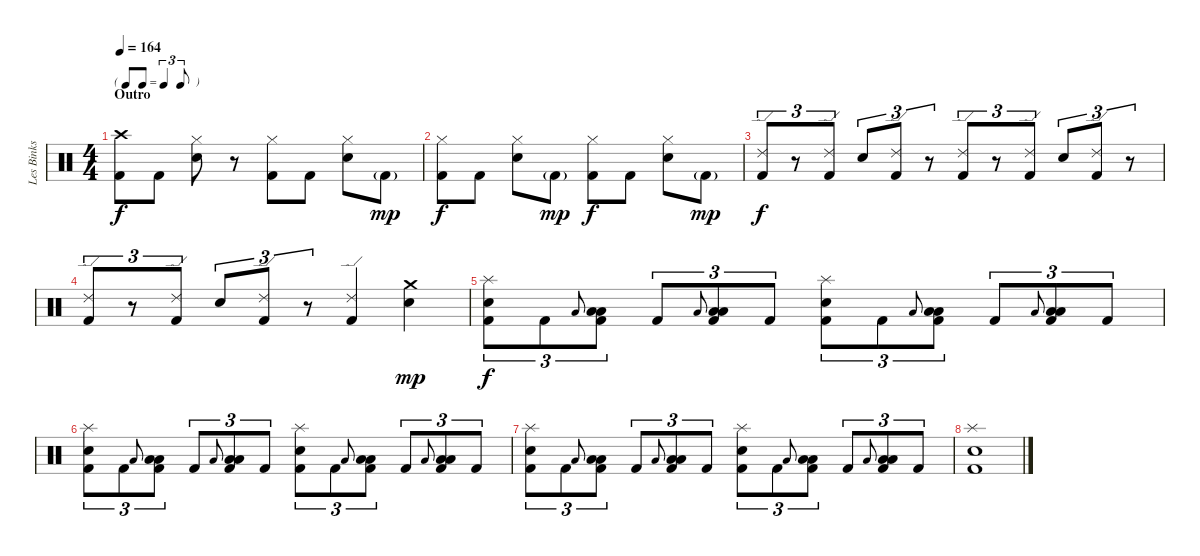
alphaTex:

\track ("Les Binks" "Les Binks") {instrument percussion}
\staff {score}
\articulation defaults
\ts (4 4)
\tf triplet8th
\section ("" "Outro")
\tempo 164
\clef neutral
\ks c
("Crash high (hit)" "Kick (hit) 2").8{dy f} "Kick (hit) 2".8 ("Hi-Hat (closed)" "Electric Snare (hit)").8 r.8 ("Hi-Hat (closed)" "Kick (hit) 2").8 "Kick (hit) 2".8 ("Hi-Hat (closed)" "Electric Snare (hit)").8 "Kick (hit) 2"{g}.8{dy mp} |
("Hi-Hat (closed)" "Kick (hit) 2").8{dy f} "Kick (hit) 2".8 ("Hi-Hat (closed)" "Electric Snare (hit)").8 "Kick (hit) 2"{g}.8{dy mp} ("Hi-Hat (closed)" "Kick (hit) 2").8{dy f} "Kick (hit) 2".8 ("Hi-Hat (closed)" "Electric Snare (hit)").8 "Kick (hit) 2"{g}.8{dy mp} |
("Ride (edge) 2" "Kick (hit) 2").8{tu (3 2) dy f} r.8{tu (3 2)} ("Ride (edge) 2" "Kick (hit) 2").8{tu (3 2)} "Electric Snare (hit)".8{tu (3 2)} ("Ride (edge) 2" "Kick (hit) 2").8{tu (3 2)} r.8{tu (3 2)} ("Ride (edge) 2" "Kick (hit) 2").8{tu (3 2)} r.8{tu (3 2)} ("Ride (edge) 2" "Kick (hit) 2").8{tu (3 2)} "Electric Snare (hit)".8{tu (3 2)} ("Ride (edge) 2" "Kick (hit) 2").8{tu (3 2)} r.8{tu (3 2)} |
("Ride (edge) 2" "Kick (hit) 2").8{tu (3 2)} r.8{tu (3 2)} ("Ride (edge) 2" "Kick (hit) 2").8{tu (3 2)} "Electric Snare (hit)".8{tu (3 2)} ("Ride (edge) 2" "Kick (hit) 2").8{tu (3 2)} r.8{tu (3 2)} ("Ride (edge) 2" "Kick (hit) 2").4 ("Crash medium (hit)" "Electric Snare (hit)").4{dy mp} |
("Splash (hit)" "Electric Snare (hit)" "Kick (hit) 2").8{tu (3 2) dy f} "Kick (hit) 2".8{tu (3 2)} "Low Tom (hit)".8{gr onbeat} ("Low Floor Tom (hit)" "Low Tom (hit)" "Kick (hit) 2").8{tu (3 2)} "Kick (hit) 2".8{tu (3 2)} "Low Tom (hit)".8{gr onbeat} ("Low Floor Tom (hit)" "Low Tom (hit)" "Kick (hit) 2").8{tu (3 2)} "Kick (hit) 2".8{tu (3 2)} ("Splash (hit)" "Electric Snare (hit)" "Kick (hit) 2").8{tu (3 2)} "Kick (hit) 2".8{tu (3 2)} "Low Tom (hit)".8{gr onbeat} ("Low Floor Tom (hit)" "Low Tom (hit)" "Kick (hit) 2").8{tu (3 2)} "Kick (hit) 2".8{tu (3 2)} "Low Tom (hit)".8{gr onbeat} ("Low Floor Tom (hit)" "Low Tom (hit)" "Kick (hit) 2").8{tu (3 2)} "Kick (hit) 2".8{tu (3 2)} |
("Splash (hit)" "Electric Snare (hit)" "Kick (hit) 2").8{tu (3 2)} "Kick (hit) 2".8{tu (3 2)} "Low Tom (hit)".8{gr onbeat} ("Low Floor Tom (hit)" "Low Tom (hit)" "Kick (hit) 2").8{tu (3 2)} "Kick (hit) 2".8{tu (3 2)} "Low Tom (hit)".8{gr onbeat} ("Low Floor Tom (hit)" "Low Tom (hit)" "Kick (hit) 2").8{tu (3 2)} "Kick (hit) 2".8{tu (3 2)} ("Splash (hit)" "Electric Snare (hit)" "Kick (hit) 2").8{tu (3 2)} "Kick (hit) 2".8{tu (3 2)} "Low Tom (hit)".8{gr onbeat} ("Low Floor Tom (hit)" "Low Tom (hit)" "Kick (hit) 2").8{tu (3 2)} "Kick (hit) 2".8{tu (3 2)} "Low Tom (hit)".8{gr onbeat} ("Low Floor Tom (hit)" "Low Tom (hit)" "Kick (hit) 2").8{tu (3 2)} "Kick (hit) 2".8{tu (3 2)} |
("Splash (hit)" "Electric Snare (hit)" "Kick (hit) 2").8{tu (3 2)} "Kick (hit) 2".8{tu (3 2)} "Low Tom (hit)".8{gr onbeat} ("Low Floor Tom (hit)" "Low Tom (hit)" "Kick (hit) 2").8{tu (3 2)} "Kick (hit) 2".8{tu (3 2)} "Low Tom (hit)".8{gr onbeat} ("Low Floor Tom (hit)" "Low Tom (hit)" "Kick (hit) 2").8{tu (3 2)} "Kick (hit) 2".8{tu (3 2)} ("Splash (hit)" "Electric Snare (hit)" "Kick (hit) 2").8{tu (3 2)} "Kick (hit) 2".8{tu (3 2)} "Low Tom (hit)".8{gr onbeat} ("Low Floor Tom (hit)" "Low Tom (hit)" "Kick (hit) 2").8{tu (3 2)} "Kick (hit) 2".8{tu (3 2)} "Low Tom (hit)".8{gr onbeat} ("Low Floor Tom (hit)" "Low Tom (hit)" "Kick (hit) 2").8{tu (3 2)} "Kick (hit) 2".8{tu (3 2)} |
("Splash (hit)" "Electric Snare (hit)" "Kick (hit) 2").1
